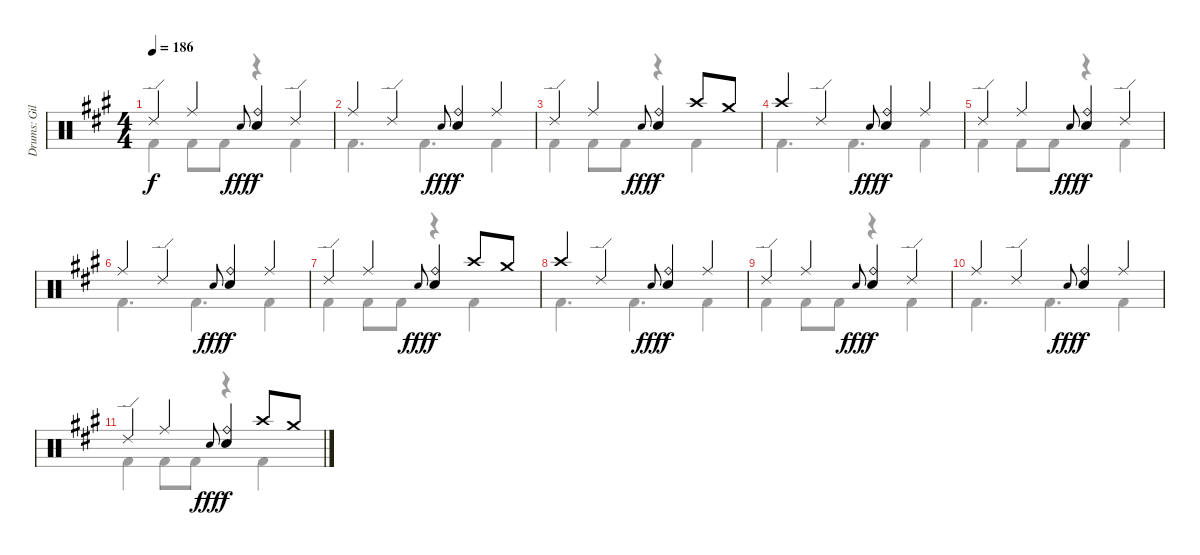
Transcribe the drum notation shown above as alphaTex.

\track ("Drums: Gil" "Drums: Gil") {instrument percussion}
\staff {score}
\articulation defaults
\voice
\ts (4 4)
\tempo 186
\clef neutral
\ks a "Ride (edge) 2".4{dy f} "Ride (middle)".4 "Electric Snare (hit)".8{gr onbeat dy fff}
("Ride (bell)" "Snare (hit) 2").4{dy f} "Ride (edge) 2".4 |
"Ride (middle)".4 "Ride (edge) 2".4 "Electric Snare (hit)".8{gr onbeat dy fff} ("Ride (bell)" "Snare (hit) 2").4{dy f} "Ride (middle)".4 |
"Ride (edge) 2".4 "Ride (middle)".4 "Electric Snare (hit)".8{gr onbeat dy fff} ("Ride (bell)" "Snare (hit) 2").4{dy f} "Crash high (hit)".8 "Crash medium (hit)".8 |
"Crash high (hit)".4{volume 8} "Ride (edge) 2".4 "Electric Snare (hit)".8{gr onbeat dy fff} ("Ride (bell)" "Snare (hit) 2").4{dy f} "Ride (middle)".4 |
"Ride (edge) 2".4 "Ride (middle)".4 "Electric Snare (hit)".8{gr onbeat dy fff} ("Ride (bell)" "Snare (hit) 2").4{dy f} "Ride (edge) 2".4 |
"Ride (middle)".4 "Ride (edge) 2".4 "Electric Snare (hit)".8{gr onbeat dy fff} ("Ride (bell)" "Snare (hit) 2").4{dy f} "Ride (middle)".4 |
"Ride (edge) 2".4 "Ride (middle)".4 "Electric Snare (hit)".8{gr onbeat dy fff} ("Ride (bell)" "Snare (hit) 2").4{dy f} "Crash high (hit)".8 "Crash medium (hit)".8 |
"Crash high (hit)".4{volume 0} "Ride (edge) 2".4 "Electric Snare (hit)".8{gr onbeat dy fff} ("Ride (bell)" "Snare (hit) 2").4{dy f} "Ride (middle)".4 |
"Ride (edge) 2".4 "Ride (middle)".4 "Electric Snare (hit)".8{gr onbeat dy fff} ("Ride (bell)" "Snare (hit) 2").4{dy f} "Ride (edge) 2".4 |
"Ride (middle)".4 "Ride (edge) 2".4 "Electric Snare (hit)".8{gr onbeat dy fff} ("Ride (bell)" "Snare (hit) 2").4{dy f} "Ride (middle)".4 |
"Ride (edge) 2".4 "Ride (middle)".4 "Electric Snare (hit)".8{gr onbeat dy fff} ("Ride (bell)" "Snare (hit) 2").4{dy f} "Crash high (hit)".8 "Crash medium (hit)".8
\voice
\clef neutral
\ottava regular
\simile none
\ks a "Kick (hit) 2".4{dy f} "Kick (hit) 2".8 "Kick (hit) 2".8
r.4 "Kick (hit) 2".4 |
"Kick (hit) 2".4{d} "Kick (hit) 2".4{d} "Kick (hit) 2".4 |
"Kick (hit) 2".4 "Kick (hit) 2".8 "Kick (hit) 2".8 r.4 "Kick (hit) 2".4 |
"Kick (hit) 2".4{d} "Kick (hit) 2".4{d} "Kick (hit) 2".4 |
"Kick (hit) 2".4 "Kick (hit) 2".8 "Kick (hit) 2".8 r.4 "Kick (hit) 2".4 |
"Kick (hit) 2".4{d} "Kick (hit) 2".4{d} "Kick (hit) 2".4 |
"Kick (hit) 2".4 "Kick (hit) 2".8 "Kick (hit) 2".8 r.4 "Kick (hit) 2".4 |
"Kick (hit) 2".4{d} "Kick (hit) 2".4{d} "Kick (hit) 2".4 |
"Kick (hit) 2".4 "Kick (hit) 2".8 "Kick (hit) 2".8 r.4 "Kick (hit) 2".4 |
"Kick (hit) 2".4{d} "Kick (hit) 2".4{d} "Kick (hit) 2".4 |
"Kick (hit) 2".4 "Kick (hit) 2".8 "Kick (hit) 2".8 r.4 "Kick (hit) 2".4
